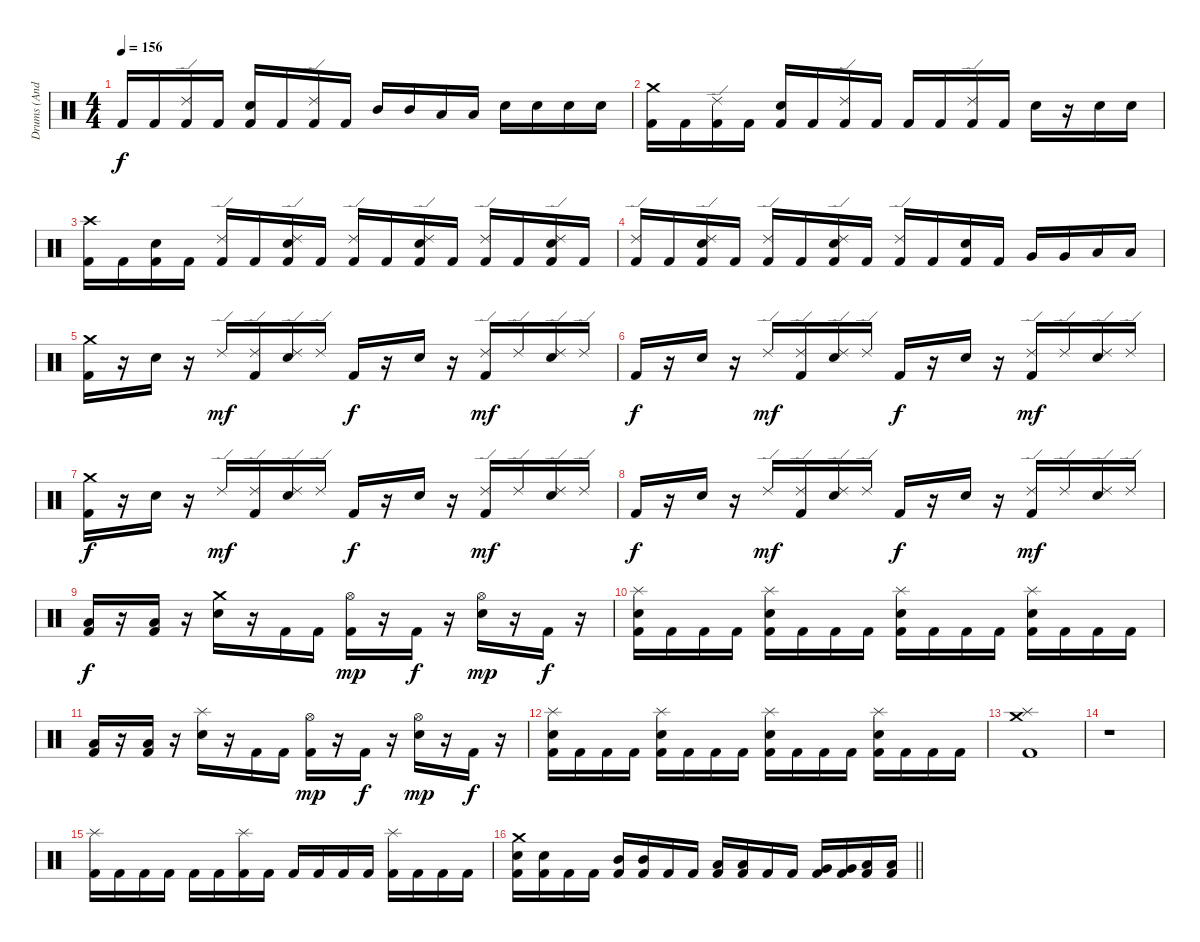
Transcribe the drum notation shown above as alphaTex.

\track ("Drums (Andy C)" "Drums (And") {instrument percussion}
\staff
\articulation defaults
\ts (4 4)
\tempo 156
\clef neutral
\ks c "Kick (hit) 2".16{dy f} "Kick (hit) 2".16
("Ride (edge) 2" "Kick (hit) 2").16 "Kick (hit) 2".16 ("Kick (hit) 2" "Electric Snare (hit)").16 "Kick (hit) 2".16 ("Ride (edge) 2" "Kick (hit) 2").16 "Kick (hit) 2".16 "Mid Tom (hit)".16 "Mid Tom (hit)".16 "Low Tom (hit)".16 "Low Tom (hit)".16 "Electric Snare (hit)".16 "Electric Snare (hit)".16 "Electric Snare (hit)".16 "Electric Snare (hit)".16 |
("Crash medium (hit)" "Kick (hit) 2").16 "Kick (hit) 2".16 ("Ride (edge) 2" "Kick (hit) 2").16 "Kick (hit) 2".16 ("Electric Snare (hit)" "Kick (hit) 2").16 "Kick (hit) 2".16 ("Ride (edge) 2" "Kick (hit) 2").16 "Kick (hit) 2".16 "Kick (hit) 2".16 "Kick (hit) 2".16 ("Ride (edge) 2" "Kick (hit) 2").16 "Kick (hit) 2".16 "Electric Snare (hit)".16 r.16 "Electric Snare (hit)".16 "Electric Snare (hit)".16 |
("Crash high (hit)" "Kick (hit) 2").16 "Kick (hit) 2".16 ("Kick (hit) 2" "Electric Snare (hit)").16 "Kick (hit) 2".16 ("Ride (edge) 2" "Kick (hit) 2").16 "Kick (hit) 2".16 ("Ride (edge) 2" "Kick (hit) 2" "Electric Snare (hit)").16 "Kick (hit) 2".16 ("Ride (edge) 2" "Kick (hit) 2").16 "Kick (hit) 2".16 ("Ride (edge) 2" "Kick (hit) 2" "Electric Snare (hit)").16 "Kick (hit) 2".16 ("Ride (edge) 2" "Kick (hit) 2").16 "Kick (hit) 2".16 ("Ride (edge) 2" "Kick (hit) 2" "Electric Snare (hit)").16 "Kick (hit) 2".16 |
("Ride (edge) 2" "Kick (hit) 2").16 "Kick (hit) 2".16 ("Ride (edge) 2" "Kick (hit) 2" "Electric Snare (hit)").16 "Kick (hit) 2".16 ("Ride (edge) 2" "Kick (hit) 2").16 "Kick (hit) 2".16 ("Ride (edge) 2" "Kick (hit) 2" "Electric Snare (hit)").16 "Kick (hit) 2".16 ("Ride (edge) 2" "Kick (hit) 2").16 "Kick (hit) 2".16 ("Kick (hit) 2" "Electric Snare (hit)").16 "Kick (hit) 2".16 "Very Low Tom (hit)".16 "Very Low Tom (hit)".16 "Low Floor Tom (hit)".16 "Low Floor Tom (hit)".16 |
("Crash medium (hit)" "Kick (hit) 2").16 r.16 "Electric Snare (hit)".16 r.16 "Ride (edge) 2".16{dy mf} ("Ride (edge) 2" "Kick (hit) 2").16 ("Ride (edge) 2" "Electric Snare (hit)").16 "Ride (edge) 2".16 "Kick (hit) 2".16{dy f} r.16 "Electric Snare (hit)".16 r.16 ("Ride (edge) 2" "Kick (hit) 2").16{dy mf} "Ride (edge) 2".16 ("Ride (edge) 2" "Electric Snare (hit)").16 "Ride (edge) 2".16 |
"Kick (hit) 2".16{dy f} r.16 "Electric Snare (hit)".16 r.16 "Ride (edge) 2".16{dy mf} ("Ride (edge) 2" "Kick (hit) 2").16 ("Ride (edge) 2" "Electric Snare (hit)").16 "Ride (edge) 2".16 "Kick (hit) 2".16{dy f} r.16 "Electric Snare (hit)".16 r.16 ("Ride (edge) 2" "Kick (hit) 2").16{dy mf} "Ride (edge) 2".16 ("Ride (edge) 2" "Electric Snare (hit)").16 "Ride (edge) 2".16 |
("Crash medium (hit)" "Kick (hit) 2").16{dy f} r.16 "Electric Snare (hit)".16 r.16 "Ride (edge) 2".16{dy mf} ("Ride (edge) 2" "Kick (hit) 2").16 ("Ride (edge) 2" "Electric Snare (hit)").16 "Ride (edge) 2".16 "Kick (hit) 2".16{dy f} r.16 "Electric Snare (hit)".16 r.16 ("Ride (edge) 2" "Kick (hit) 2").16{dy mf} "Ride (edge) 2".16 ("Ride (edge) 2" "Electric Snare (hit)").16 "Ride (edge) 2".16 |
"Kick (hit) 2".16{dy f} r.16 "Electric Snare (hit)".16 r.16 "Ride (edge) 2".16{dy mf} ("Ride (edge) 2" "Kick (hit) 2").16 ("Ride (edge) 2" "Electric Snare (hit)").16 "Ride (edge) 2".16 "Kick (hit) 2".16{dy f} r.16 "Electric Snare (hit)".16 r.16 ("Ride (edge) 2" "Kick (hit) 2").16{dy mf} "Ride (edge) 2".16 ("Ride (edge) 2" "Electric Snare (hit)").16 "Ride (edge) 2".16 |
("Low Tom (hit)" "Kick (hit) 2").16{dy f} r.16 ("Low Tom (hit)" "Kick (hit) 2").16 r.16 ("Crash medium (hit)" "Electric Snare (hit)").16 r.16 "Kick (hit) 2".16 "Kick (hit) 2".16 ("Hi-Hat (open)" "Kick (hit) 2").16{dy mp} r.16 "Kick (hit) 2".16{dy f} r.16 ("Hi-Hat (open)" "Electric Snare (hit)").16{dy mp} r.16 "Kick (hit) 2".16{dy f} r.16 |
("Splash (hit)" "Kick (hit) 2" "Electric Snare (hit)").16 "Kick (hit) 2".16 "Kick (hit) 2".16 "Kick (hit) 2".16 ("Splash (hit)" "Kick (hit) 2" "Electric Snare (hit)").16 "Kick (hit) 2".16 "Kick (hit) 2".16 "Kick (hit) 2".16 ("Splash (hit)" "Kick (hit) 2" "Electric Snare (hit)").16 "Kick (hit) 2".16 "Kick (hit) 2".16 "Kick (hit) 2".16 ("Splash (hit)" "Kick (hit) 2" "Electric Snare (hit)").16 "Kick (hit) 2".16 "Kick (hit) 2".16 "Kick (hit) 2".16 |
("Low Tom (hit)" "Kick (hit) 2").16 r.16 ("Low Tom (hit)" "Kick (hit) 2").16 r.16 ("Splash (hit)" "Electric Snare (hit)").16 r.16 "Kick (hit) 2".16 "Kick (hit) 2".16 ("Hi-Hat (open)" "Kick (hit) 2").16{dy mp} r.16 "Kick (hit) 2".16{dy f} r.16 ("Hi-Hat (open)" "Electric Snare (hit)").16{dy mp} r.16 "Kick (hit) 2".16{dy f} r.16 |
("Splash (hit)" "Kick (hit) 2" "Electric Snare (hit)").16 "Kick (hit) 2".16 "Kick (hit) 2".16 "Kick (hit) 2".16 ("Splash (hit)" "Kick (hit) 2" "Electric Snare (hit)").16 "Kick (hit) 2".16 "Kick (hit) 2".16 "Kick (hit) 2".16 ("Splash (hit)" "Kick (hit) 2" "Electric Snare (hit)").16 "Kick (hit) 2".16 "Kick (hit) 2".16 "Kick (hit) 2".16 ("Splash (hit)" "Kick (hit) 2" "Electric Snare (hit)").16 "Kick (hit) 2".16 "Kick (hit) 2".16 "Kick (hit) 2".16 |
("Crash medium (hit)" "Splash (hit)" "Kick (hit) 2").1 |
r.1 |
("Splash (hit)" "Kick (hit) 2").16 "Kick (hit) 2".16 "Kick (hit) 2".16 "Kick (hit) 2".16 "Kick (hit) 2".16 "Kick (hit) 2".16 ("Splash (hit)" "Kick (hit) 2").16 "Kick (hit) 2".16 "Kick (hit) 2".16 "Kick (hit) 2".16 "Kick (hit) 2".16 "Kick (hit) 2".16 ("Splash (hit)" "Kick (hit) 2").16 "Kick (hit) 2".16 "Kick (hit) 2".16 "Kick (hit) 2".16 |
\barLineRight lightlight
("Crash medium (hit)" "Kick (hit) 2" "Electric Snare (hit)").16 ("Kick (hit) 2" "Electric Snare (hit)").16 "Kick (hit) 2".16 "Kick (hit) 2".16 ("Mid Tom (hit)" "Kick (hit) 2").16 ("Mid Tom (hit)" "Kick (hit) 2").16 "Kick (hit) 2".16 "Kick (hit) 2".16 ("Low Tom (hit)" "Kick (hit) 2").16 ("Low Tom (hit)" "Kick (hit) 2").16 "Kick (hit) 2".16 "Kick (hit) 2".16 ("Very Low Tom (hit)" "Kick (hit) 2").16 ("Very Low Tom (hit)" "Kick (hit) 2").16 ("Low Floor Tom (hit)" "Kick (hit) 2").16 ("Low Floor Tom (hit)" "Kick (hit) 2").16
